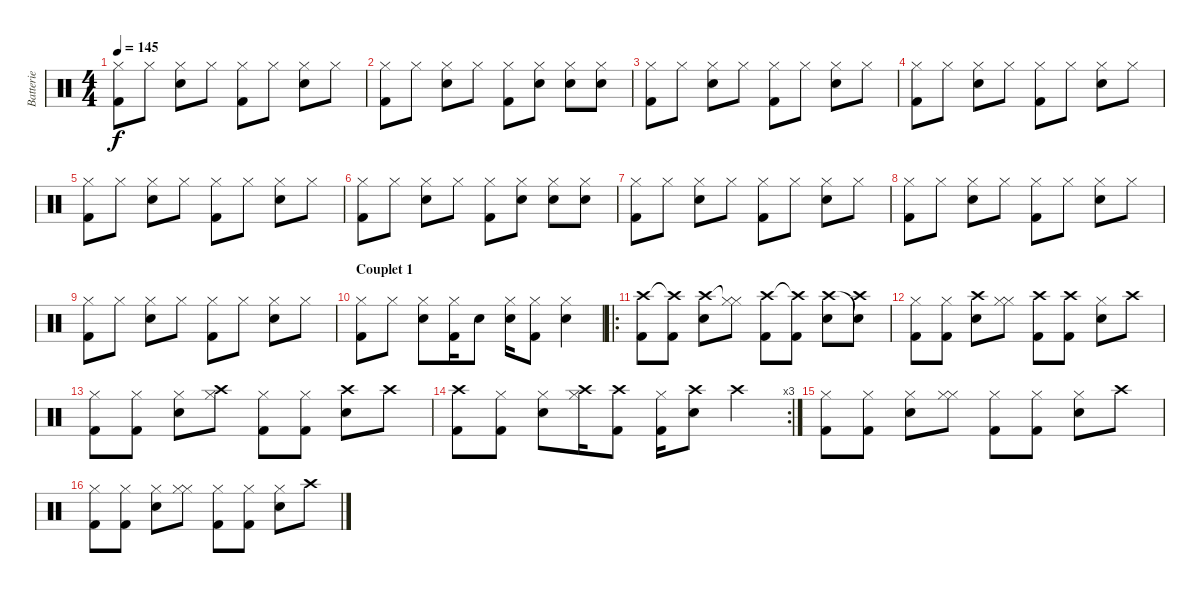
\track ("Batterie" "Batterie") {instrument percussion}
\staff {score}
\articulation defaults
\ts (4 4)
\tempo 145
\clef neutral
\ks c
("Kick (hit) 2" "Hi-Hat (closed)").8{dy f} "Hi-Hat (closed)".8 ("Snare (hit) 2" "Hi-Hat (closed)").8 "Hi-Hat (closed)".8 ("Kick (hit) 2" "Hi-Hat (closed)").8 "Hi-Hat (closed)".8 ("Snare (hit) 2" "Hi-Hat (closed)").8 "Hi-Hat (closed)".8 |
("Kick (hit) 2" "Hi-Hat (closed)").8 "Hi-Hat (closed)".8 ("Snare (hit) 2" "Hi-Hat (closed)").8 "Hi-Hat (closed)".8 ("Kick (hit) 2" "Hi-Hat (closed)").8 ("Snare (hit) 2" "Hi-Hat (closed)").8 ("Snare (hit) 2" "Hi-Hat (closed)").8 ("Snare (hit) 2" "Hi-Hat (closed)").8 |
("Kick (hit) 2" "Hi-Hat (closed)").8 "Hi-Hat (closed)".8 ("Snare (hit) 2" "Hi-Hat (closed)").8 "Hi-Hat (closed)".8 ("Kick (hit) 2" "Hi-Hat (closed)").8 "Hi-Hat (closed)".8 ("Snare (hit) 2" "Hi-Hat (closed)").8 "Hi-Hat (closed)".8 |
("Kick (hit) 2" "Hi-Hat (closed)").8 "Hi-Hat (closed)".8 ("Snare (hit) 2" "Hi-Hat (closed)").8 "Hi-Hat (closed)".8 ("Kick (hit) 2" "Hi-Hat (closed)").8 "Hi-Hat (closed)".8 ("Snare (hit) 2" "Hi-Hat (closed)").8 "Hi-Hat (closed)".8 |
("Kick (hit) 2" "Hi-Hat (closed)").8 "Hi-Hat (closed)".8 ("Snare (hit) 2" "Hi-Hat (closed)").8 "Hi-Hat (closed)".8 ("Kick (hit) 2" "Hi-Hat (closed)").8 "Hi-Hat (closed)".8 ("Snare (hit) 2" "Hi-Hat (closed)").8 "Hi-Hat (closed)".8 |
("Kick (hit) 2" "Hi-Hat (closed)").8 "Hi-Hat (closed)".8 ("Snare (hit) 2" "Hi-Hat (closed)").8 "Hi-Hat (closed)".8 ("Kick (hit) 2" "Hi-Hat (closed)").8 ("Snare (hit) 2" "Hi-Hat (closed)").8 ("Snare (hit) 2" "Hi-Hat (closed)").8 ("Snare (hit) 2" "Hi-Hat (closed)").8 |
("Kick (hit) 2" "Hi-Hat (closed)").8 "Hi-Hat (closed)".8 ("Snare (hit) 2" "Hi-Hat (closed)").8 "Hi-Hat (closed)".8 ("Kick (hit) 2" "Hi-Hat (closed)").8 "Hi-Hat (closed)".8 ("Snare (hit) 2" "Hi-Hat (closed)").8 "Hi-Hat (closed)".8 |
("Kick (hit) 2" "Hi-Hat (closed)").8 "Hi-Hat (closed)".8 ("Snare (hit) 2" "Hi-Hat (closed)").8 "Hi-Hat (closed)".8 ("Kick (hit) 2" "Hi-Hat (closed)").8 "Hi-Hat (closed)".8 ("Snare (hit) 2" "Hi-Hat (closed)").8 "Hi-Hat (closed)".8 |
("Kick (hit) 2" "Hi-Hat (closed)").8 "Hi-Hat (closed)".8 ("Snare (hit) 2" "Hi-Hat (closed)").8 "Hi-Hat (closed)".8 ("Kick (hit) 2" "Hi-Hat (closed)").8 "Hi-Hat (closed)".8 ("Snare (hit) 2" "Hi-Hat (closed)").8 "Hi-Hat (closed)".8 |
\section ("" "Couplet 1")
("Kick (hit) 2" "Hi-Hat (closed)").8 "Hi-Hat (closed)".8 ("Snare (hit) 2" "Hi-Hat (closed)").8 ("Kick (hit) 2" "Hi-Hat (closed)").16 "Snare (hit) 2".8 ("Snare (hit) 2" "Hi-Hat (closed)").16 ("Kick (hit) 2" "Hi-Hat (closed)").8 ("Snare (hit) 2" "Hi-Hat (closed)").4 |
\ro
("Kick (hit) 2" "Crash high (hit)").8 ("Kick (hit) 2" "Crash high (hit)"{t}).8 ("Snare (hit) 2" "Crash high (hit)").8 ("Hi-Hat (closed)" "Hi-Hat (closed)"{t}).8 ("Kick (hit) 2" "Crash high (hit)").8 ("Kick (hit) 2" "Crash high (hit)"{t}).8 ("Snare (hit) 2" "Crash high (hit)").8 ("Crash high (hit)" "Snare (hit)"{t}).8 |
("Kick (hit) 2" "Hi-Hat (closed)").8 ("Kick (hit) 2" "Hi-Hat (closed)").8 ("Snare (hit) 2" "Crash high (hit)").8 ("Hi-Hat (closed)" "Hi-Hat (closed)").8 ("Kick (hit) 2" "Crash high (hit)").8 ("Kick (hit) 2" "Crash high (hit)").8 ("Snare (hit) 2" "Hi-Hat (closed)").8 "Crash high (hit)".8 |
("Kick (hit) 2" "Hi-Hat (closed)").8 ("Kick (hit) 2" "Hi-Hat (closed)").8 ("Snare (hit) 2" "Hi-Hat (closed)").8 ("Hi-Hat (closed)" "Crash high (hit)").8 ("Kick (hit) 2" "Hi-Hat (closed)").8 ("Kick (hit) 2" "Hi-Hat (closed)").8 ("Snare (hit) 2" "Crash high (hit)").8 "Crash high (hit)".8 |
\rc 3
("Kick (hit) 2" "Crash high (hit)").8 ("Kick (hit) 2" "Hi-Hat (closed)").8 ("Snare (hit) 2" "Hi-Hat (closed)").8 ("Hi-Hat (closed)" "Crash high (hit)").16 ("Kick (hit) 2" "Crash high (hit)").8 ("Kick (hit) 2" "Hi-Hat (closed)").16 ("Snare (hit) 2" "Crash high (hit)").8 "Crash high (hit)".4 |
("Kick (hit) 2" "Hi-Hat (closed)").8 ("Kick (hit) 2" "Hi-Hat (closed)").8 ("Snare (hit) 2" "Hi-Hat (closed)").8 ("Hi-Hat (closed)" "Hi-Hat (closed)").8 ("Kick (hit) 2" "Hi-Hat (closed)").8 ("Kick (hit) 2" "Hi-Hat (closed)").8 ("Snare (hit) 2" "Hi-Hat (closed)").8 "Crash high (hit)".8 |
("Kick (hit) 2" "Hi-Hat (closed)").8 ("Kick (hit) 2" "Hi-Hat (closed)").8 ("Snare (hit) 2" "Hi-Hat (closed)").8 ("Hi-Hat (closed)" "Hi-Hat (closed)").8 ("Kick (hit) 2" "Hi-Hat (closed)").8 ("Kick (hit) 2" "Hi-Hat (closed)").8 ("Snare (hit) 2" "Hi-Hat (closed)").8 "Crash high (hit)".8
